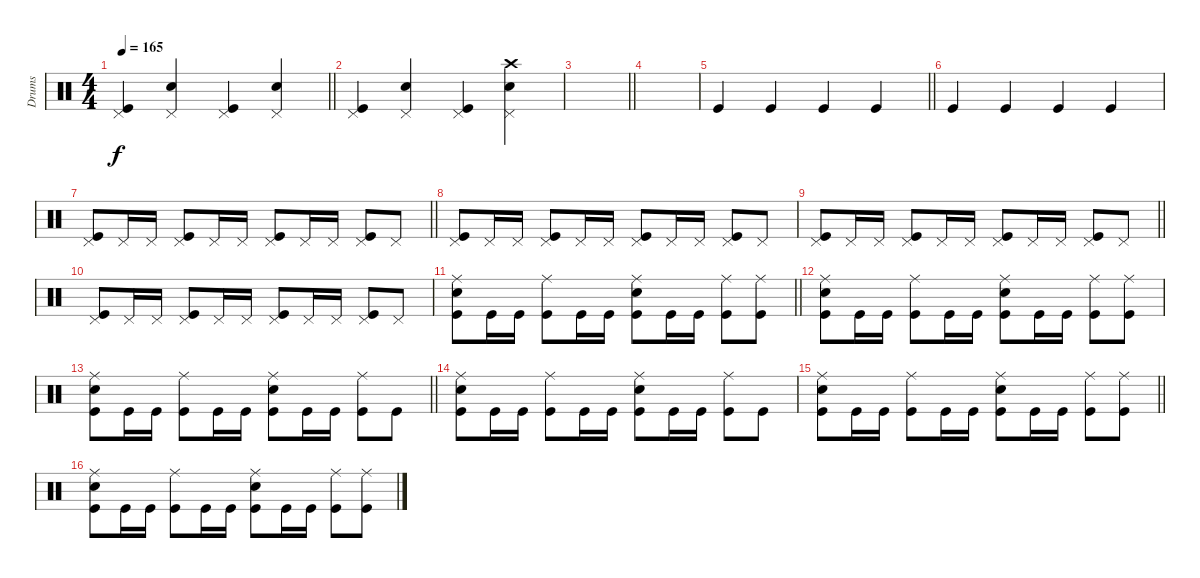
\track ("Drums" "Drums") {instrument percussion}
\staff {score}
\articulation defaults
\ts (4 4)
\tempo 165
\clef neutral
\barLineRight lightlight
\ks c
("Pedal Hi-Hat (hit)" "Kick (hit)").4{dy f} ("Pedal Hi-Hat (hit)" "Snare (hit) 2").4 ("Pedal Hi-Hat (hit)" "Kick (hit)").4 ("Pedal Hi-Hat (hit)" "Snare (hit) 2").4 |
("Pedal Hi-Hat (hit)" "Kick (hit)").4 ("Pedal Hi-Hat (hit)" "Snare (hit) 2").4 ("Pedal Hi-Hat (hit)" "Kick (hit)").4 ("Crash high (hit)" "Pedal Hi-Hat (hit)" "Snare (hit) 2").4 |
\barLineRight lightlight
|
|
\barLineRight lightlight "Kick (hit)".4 "Kick (hit)".4 "Kick (hit)".4 "Kick (hit)".4
|
"Kick (hit)".4 "Kick (hit)".4 "Kick (hit)".4 "Kick (hit)".4 |
\barLineRight lightlight
("Pedal Hi-Hat (hit)" "Kick (hit)").8 "Pedal Hi-Hat (hit)".16 "Pedal Hi-Hat (hit)".16 ("Pedal Hi-Hat (hit)" "Kick (hit)").8 "Pedal Hi-Hat (hit)".16 "Pedal Hi-Hat (hit)".16 ("Pedal Hi-Hat (hit)" "Kick (hit)").8 "Pedal Hi-Hat (hit)".16 "Pedal Hi-Hat (hit)".16 ("Pedal Hi-Hat (hit)" "Kick (hit)").8 "Pedal Hi-Hat (hit)".8 |
("Pedal Hi-Hat (hit)" "Kick (hit)").8 "Pedal Hi-Hat (hit)".16 "Pedal Hi-Hat (hit)".16 ("Pedal Hi-Hat (hit)" "Kick (hit)").8 "Pedal Hi-Hat (hit)".16 "Pedal Hi-Hat (hit)".16 ("Pedal Hi-Hat (hit)" "Kick (hit)").8 "Pedal Hi-Hat (hit)".16 "Pedal Hi-Hat (hit)".16 ("Pedal Hi-Hat (hit)" "Kick (hit)").8 "Pedal Hi-Hat (hit)".8 |
\barLineRight lightlight
("Pedal Hi-Hat (hit)" "Kick (hit)").8 "Pedal Hi-Hat (hit)".16 "Pedal Hi-Hat (hit)".16 ("Pedal Hi-Hat (hit)" "Kick (hit)").8 "Pedal Hi-Hat (hit)".16 "Pedal Hi-Hat (hit)".16 ("Pedal Hi-Hat (hit)" "Kick (hit)").8 "Pedal Hi-Hat (hit)".16 "Pedal Hi-Hat (hit)".16 ("Pedal Hi-Hat (hit)" "Kick (hit)").8 "Pedal Hi-Hat (hit)".8 |
("Pedal Hi-Hat (hit)" "Kick (hit)").8 "Pedal Hi-Hat (hit)".16 "Pedal Hi-Hat (hit)".16 ("Pedal Hi-Hat (hit)" "Kick (hit)").8 "Pedal Hi-Hat (hit)".16 "Pedal Hi-Hat (hit)".16 ("Pedal Hi-Hat (hit)" "Kick (hit)").8 "Pedal Hi-Hat (hit)".16 "Pedal Hi-Hat (hit)".16 ("Pedal Hi-Hat (hit)" "Kick (hit)").8 "Pedal Hi-Hat (hit)".8 |
\barLineRight lightlight
("Ride (middle)" "Snare (hit) 2" "Kick (hit)").8 "Kick (hit)".16 "Kick (hit)".16 ("Ride (middle)" "Kick (hit)").8 "Kick (hit)".16 "Kick (hit)".16 ("Ride (middle)" "Snare (hit) 2" "Kick (hit)").8 "Kick (hit)".16 "Kick (hit)".16 ("Ride (middle)" "Kick (hit)").8 ("Ride (middle)" "Kick (hit)").8 |
("Ride (middle)" "Snare (hit) 2" "Kick (hit)").8 "Kick (hit)".16 "Kick (hit)".16 ("Ride (middle)" "Kick (hit)").8 "Kick (hit)".16 "Kick (hit)".16 ("Ride (middle)" "Snare (hit) 2" "Kick (hit)").8 "Kick (hit)".16 "Kick (hit)".16 ("Ride (middle)" "Kick (hit)").8 ("Ride (middle)" "Kick (hit)").8 |
\barLineRight lightlight
("Ride (middle)" "Snare (hit) 2" "Kick (hit)").8 "Kick (hit)".16 "Kick (hit)".16 ("Ride (middle)" "Kick (hit)").8 "Kick (hit)".16 "Kick (hit)".16 ("Ride (middle)" "Snare (hit) 2" "Kick (hit)").8 "Kick (hit)".16 "Kick (hit)".16 ("Ride (middle)" "Kick (hit)").8 "Kick (hit)".8 |
("Ride (middle)" "Snare (hit) 2" "Kick (hit)").8 "Kick (hit)".16 "Kick (hit)".16 ("Ride (middle)" "Kick (hit)").8 "Kick (hit)".16 "Kick (hit)".16 ("Ride (middle)" "Snare (hit) 2" "Kick (hit)").8 "Kick (hit)".16 "Kick (hit)".16 ("Ride (middle)" "Kick (hit)").8 "Kick (hit)".8 |
\barLineRight lightlight
("Ride (middle)" "Snare (hit) 2" "Kick (hit)").8 "Kick (hit)".16 "Kick (hit)".16 ("Ride (middle)" "Kick (hit)").8 "Kick (hit)".16 "Kick (hit)".16 ("Ride (middle)" "Snare (hit) 2" "Kick (hit)").8 "Kick (hit)".16 "Kick (hit)".16 ("Ride (middle)" "Kick (hit)").8 ("Ride (middle)" "Kick (hit)").8 |
("Ride (middle)" "Snare (hit) 2" "Kick (hit)").8 "Kick (hit)".16 "Kick (hit)".16 ("Ride (middle)" "Kick (hit)").8 "Kick (hit)".16 "Kick (hit)".16 ("Ride (middle)" "Snare (hit) 2" "Kick (hit)").8 "Kick (hit)".16 "Kick (hit)".16 ("Ride (middle)" "Kick (hit)").8 ("Ride (middle)" "Kick (hit)").8
